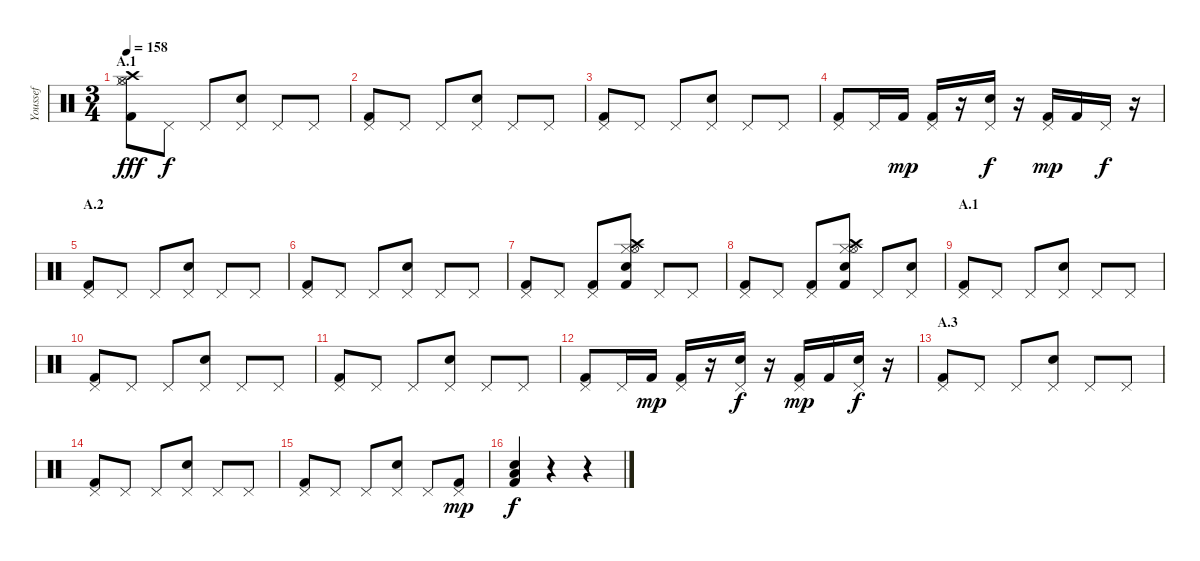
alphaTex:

\track ("Youssef" "Youssef") {instrument percussion}
\staff {score}
\articulation defaults
\ts (3 4)
\section ("" "A.1")
\tempo 158
\clef neutral
\ks c
("Kick (hit) 2" "Hi-Hat (closed)" "Hi-Hat (open)" "Crash high (hit)").8{dy fff} "Pedal Hi-Hat (hit)".8{dy f} "Pedal Hi-Hat (hit)".8 ("Electric Snare (hit)" "Pedal Hi-Hat (hit)").8 "Pedal Hi-Hat (hit)".8 "Pedal Hi-Hat (hit)".8 |
("Kick (hit) 2" "Pedal Hi-Hat (hit)").8 "Pedal Hi-Hat (hit)".8 "Pedal Hi-Hat (hit)".8 ("Electric Snare (hit)" "Pedal Hi-Hat (hit)").8 "Pedal Hi-Hat (hit)".8 "Pedal Hi-Hat (hit)".8 |
("Kick (hit) 2" "Pedal Hi-Hat (hit)").8 "Pedal Hi-Hat (hit)".8 "Pedal Hi-Hat (hit)".8 ("Electric Snare (hit)" "Pedal Hi-Hat (hit)").8 "Pedal Hi-Hat (hit)".8 "Pedal Hi-Hat (hit)".8 |
("Kick (hit) 2" "Pedal Hi-Hat (hit)").8 "Pedal Hi-Hat (hit)".16 "Kick (hit) 2".16{dy mp} ("Kick (hit) 2" "Pedal Hi-Hat (hit)").16 r.16 ("Electric Snare (hit)" "Pedal Hi-Hat (hit)").16{dy f} r.16 ("Kick (hit) 2" "Pedal Hi-Hat (hit)").16{dy mp} "Kick (hit) 2".16 "Pedal Hi-Hat (hit)".16{dy f} r.16 |
\section ("" "A.2")
("Kick (hit) 2" "Pedal Hi-Hat (hit)").8 "Pedal Hi-Hat (hit)".8 "Pedal Hi-Hat (hit)".8 ("Electric Snare (hit)" "Pedal Hi-Hat (hit)").8 "Pedal Hi-Hat (hit)".8 "Pedal Hi-Hat (hit)".8 |
("Kick (hit) 2" "Pedal Hi-Hat (hit)").8 "Pedal Hi-Hat (hit)".8 "Pedal Hi-Hat (hit)".8 ("Electric Snare (hit)" "Pedal Hi-Hat (hit)").8 "Pedal Hi-Hat (hit)".8 "Pedal Hi-Hat (hit)".8 |
("Kick (hit) 2" "Pedal Hi-Hat (hit)").8 "Pedal Hi-Hat (hit)".8 ("Kick (hit) 2" "Pedal Hi-Hat (hit)").8 ("Electric Snare (hit)" "Kick (hit) 2" "Hi-Hat (closed)" "Hi-Hat (open)" "Crash high (hit)").8 "Pedal Hi-Hat (hit)".8 "Pedal Hi-Hat (hit)".8 |
("Kick (hit) 2" "Pedal Hi-Hat (hit)").8 "Pedal Hi-Hat (hit)".8 ("Kick (hit) 2" "Pedal Hi-Hat (hit)").8 ("Electric Snare (hit)" "Kick (hit) 2" "Hi-Hat (closed)" "Hi-Hat (open)" "Crash high (hit)").8 "Pedal Hi-Hat (hit)".8 ("Electric Snare (hit)" "Pedal Hi-Hat (hit)").8 |
\section ("" "A.1")
("Kick (hit) 2" "Pedal Hi-Hat (hit)").8 "Pedal Hi-Hat (hit)".8 "Pedal Hi-Hat (hit)".8 ("Electric Snare (hit)" "Pedal Hi-Hat (hit)").8 "Pedal Hi-Hat (hit)".8 "Pedal Hi-Hat (hit)".8 |
("Kick (hit) 2" "Pedal Hi-Hat (hit)").8 "Pedal Hi-Hat (hit)".8 "Pedal Hi-Hat (hit)".8 ("Electric Snare (hit)" "Pedal Hi-Hat (hit)").8 "Pedal Hi-Hat (hit)".8 "Pedal Hi-Hat (hit)".8 |
("Kick (hit) 2" "Pedal Hi-Hat (hit)").8 "Pedal Hi-Hat (hit)".8 "Pedal Hi-Hat (hit)".8 ("Electric Snare (hit)" "Pedal Hi-Hat (hit)").8 "Pedal Hi-Hat (hit)".8 "Pedal Hi-Hat (hit)".8 |
("Kick (hit) 2" "Pedal Hi-Hat (hit)").8 "Pedal Hi-Hat (hit)".16 "Kick (hit) 2".16{dy mp} ("Kick (hit) 2" "Pedal Hi-Hat (hit)").16 r.16 ("Electric Snare (hit)" "Pedal Hi-Hat (hit)").16{dy f} r.16 ("Kick (hit) 2" "Pedal Hi-Hat (hit)").16{dy mp} "Kick (hit) 2".16 ("Electric Snare (hit)" "Pedal Hi-Hat (hit)").16{dy f} r.16 |
\section ("" "A.3")
("Kick (hit) 2" "Pedal Hi-Hat (hit)").8 "Pedal Hi-Hat (hit)".8 "Pedal Hi-Hat (hit)".8 ("Electric Snare (hit)" "Pedal Hi-Hat (hit)").8 "Pedal Hi-Hat (hit)".8 "Pedal Hi-Hat (hit)".8 |
("Kick (hit) 2" "Pedal Hi-Hat (hit)").8 "Pedal Hi-Hat (hit)".8 "Pedal Hi-Hat (hit)".8 ("Electric Snare (hit)" "Pedal Hi-Hat (hit)").8 "Pedal Hi-Hat (hit)".8 "Pedal Hi-Hat (hit)".8 |
("Kick (hit) 2" "Pedal Hi-Hat (hit)").8 "Pedal Hi-Hat (hit)".8 "Pedal Hi-Hat (hit)".8 ("Electric Snare (hit)" "Pedal Hi-Hat (hit)").8 "Pedal Hi-Hat (hit)".8 ("Kick (hit) 2" "Pedal Hi-Hat (hit)").8{dy mp} |
("Kick (hit) 2" "Electric Snare (hit)" "Low Tom (hit)").4{dy f} r.4 r.4
